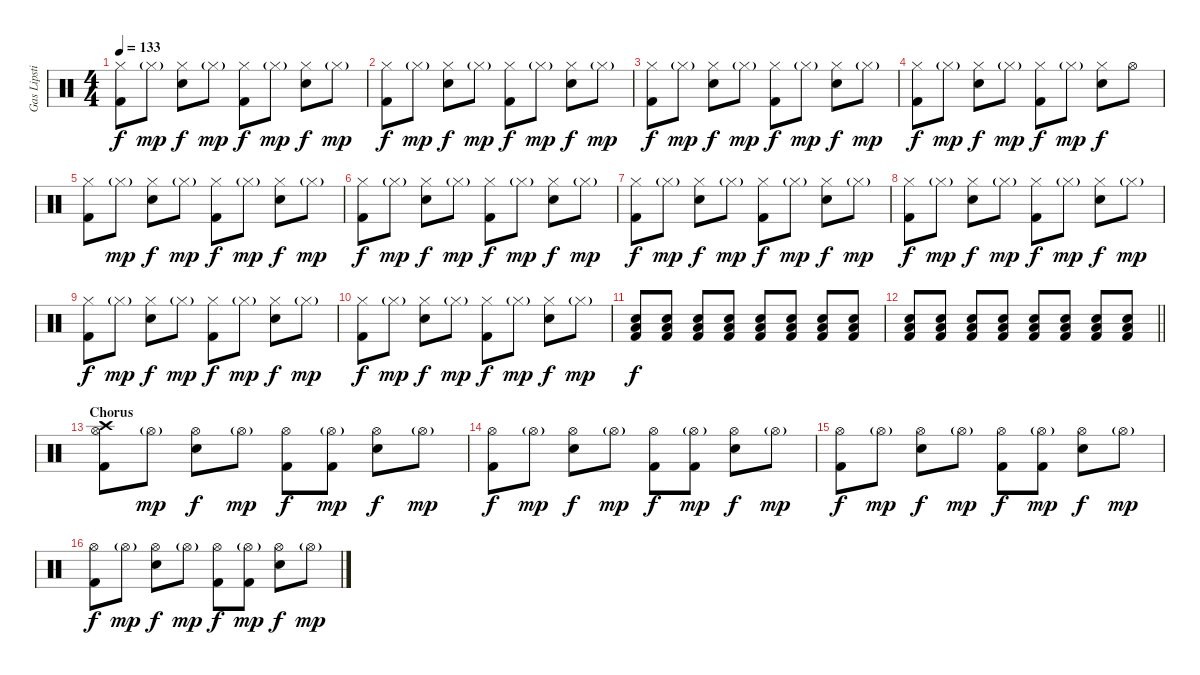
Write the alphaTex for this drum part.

\track ("Gas Lipstick (Drums)" "Gas Lipsti") {instrument percussion}
\staff {score}
\articulation defaults
\ts (4 4)
\tempo 133
\clef neutral
\ks c
("Hi-Hat (closed)" "Kick (hit) 2").8{dy f} "Hi-Hat (closed)"{g}.8{dy mp} ("Hi-Hat (closed)" "Snare (hit) 2").8{dy f} "Hi-Hat (closed)"{g}.8{dy mp} ("Hi-Hat (closed)" "Kick (hit) 2").8{dy f} "Hi-Hat (closed)"{g}.8{dy mp} ("Hi-Hat (closed)" "Snare (hit) 2").8{dy f} "Hi-Hat (closed)"{g}.8{dy mp} |
("Hi-Hat (closed)" "Kick (hit) 2").8{dy f} "Hi-Hat (closed)"{g}.8{dy mp} ("Hi-Hat (closed)" "Snare (hit) 2").8{dy f} "Hi-Hat (closed)"{g}.8{dy mp} ("Hi-Hat (closed)" "Kick (hit) 2").8{dy f} "Hi-Hat (closed)"{g}.8{dy mp} ("Hi-Hat (closed)" "Snare (hit) 2").8{dy f} "Hi-Hat (closed)"{g}.8{dy mp} |
("Hi-Hat (closed)" "Kick (hit) 2").8{dy f} "Hi-Hat (closed)"{g}.8{dy mp} ("Hi-Hat (closed)" "Snare (hit) 2").8{dy f} "Hi-Hat (closed)"{g}.8{dy mp} ("Hi-Hat (closed)" "Kick (hit) 2").8{dy f} "Hi-Hat (closed)"{g}.8{dy mp} ("Hi-Hat (closed)" "Snare (hit) 2").8{dy f} "Hi-Hat (closed)"{g}.8{dy mp} |
("Hi-Hat (closed)" "Kick (hit) 2").8{dy f} "Hi-Hat (closed)"{g}.8{dy mp} ("Hi-Hat (closed)" "Snare (hit) 2").8{dy f} "Hi-Hat (closed)"{g}.8{dy mp} ("Hi-Hat (closed)" "Kick (hit) 2").8{dy f} "Hi-Hat (closed)"{g}.8{dy mp} ("Hi-Hat (closed)" "Snare (hit) 2").8{dy f} "Hi-Hat (open)".8 |
("Hi-Hat (closed)" "Kick (hit) 2").8 "Hi-Hat (closed)"{g}.8{dy mp} ("Hi-Hat (closed)" "Snare (hit) 2").8{dy f} "Hi-Hat (closed)"{g}.8{dy mp} ("Hi-Hat (closed)" "Kick (hit) 2").8{dy f} "Hi-Hat (closed)"{g}.8{dy mp} ("Hi-Hat (closed)" "Snare (hit) 2").8{dy f} "Hi-Hat (closed)"{g}.8{dy mp} |
("Hi-Hat (closed)" "Kick (hit) 2").8{dy f} "Hi-Hat (closed)"{g}.8{dy mp} ("Hi-Hat (closed)" "Snare (hit) 2").8{dy f} "Hi-Hat (closed)"{g}.8{dy mp} ("Hi-Hat (closed)" "Kick (hit) 2").8{dy f} "Hi-Hat (closed)"{g}.8{dy mp} ("Hi-Hat (closed)" "Snare (hit) 2").8{dy f} "Hi-Hat (closed)"{g}.8{dy mp} |
("Hi-Hat (closed)" "Kick (hit) 2").8{dy f} "Hi-Hat (closed)"{g}.8{dy mp} ("Hi-Hat (closed)" "Snare (hit) 2").8{dy f} "Hi-Hat (closed)"{g}.8{dy mp} ("Hi-Hat (closed)" "Kick (hit) 2").8{dy f} "Hi-Hat (closed)"{g}.8{dy mp} ("Hi-Hat (closed)" "Snare (hit) 2").8{dy f} "Hi-Hat (closed)"{g}.8{dy mp} |
("Hi-Hat (closed)" "Kick (hit) 2").8{dy f} "Hi-Hat (closed)"{g}.8{dy mp} ("Hi-Hat (closed)" "Snare (hit) 2").8{dy f} "Hi-Hat (closed)"{g}.8{dy mp} ("Hi-Hat (closed)" "Kick (hit) 2").8{dy f} "Hi-Hat (closed)"{g}.8{dy mp} ("Hi-Hat (closed)" "Snare (hit) 2").8{dy f} "Hi-Hat (closed)"{g}.8{dy mp} |
("Hi-Hat (closed)" "Kick (hit) 2").8{dy f} "Hi-Hat (closed)"{g}.8{dy mp} ("Hi-Hat (closed)" "Snare (hit) 2").8{dy f} "Hi-Hat (closed)"{g}.8{dy mp} ("Hi-Hat (closed)" "Kick (hit) 2").8{dy f} "Hi-Hat (closed)"{g}.8{dy mp} ("Hi-Hat (closed)" "Snare (hit) 2").8{dy f} "Hi-Hat (closed)"{g}.8{dy mp} |
("Hi-Hat (closed)" "Kick (hit) 2").8{dy f} "Hi-Hat (closed)"{g}.8{dy mp} ("Hi-Hat (closed)" "Snare (hit) 2").8{dy f} "Hi-Hat (closed)"{g}.8{dy mp} ("Hi-Hat (closed)" "Kick (hit) 2").8{dy f} "Hi-Hat (closed)"{g}.8{dy mp} ("Hi-Hat (closed)" "Snare (hit) 2").8{dy f} "Hi-Hat (closed)"{g}.8{dy mp} |
("Low Floor Tom (hit)" "Snare (hit) 2" "Kick (hit) 2").8{dy f} ("Low Floor Tom (hit)" "Snare (hit) 2" "Kick (hit) 2").8 ("Low Floor Tom (hit)" "Snare (hit) 2" "Kick (hit) 2").8 ("Low Floor Tom (hit)" "Snare (hit) 2" "Kick (hit) 2").8 ("Low Floor Tom (hit)" "Snare (hit) 2" "Kick (hit) 2").8 ("Low Floor Tom (hit)" "Snare (hit) 2" "Kick (hit) 2").8 ("Low Floor Tom (hit)" "Snare (hit) 2" "Kick (hit) 2").8 ("Low Floor Tom (hit)" "Snare (hit) 2" "Kick (hit) 2").8 |
\barLineRight lightlight
("Low Floor Tom (hit)" "Snare (hit) 2" "Kick (hit) 2").8 ("Low Floor Tom (hit)" "Snare (hit) 2" "Kick (hit) 2").8 ("Low Floor Tom (hit)" "Snare (hit) 2" "Kick (hit) 2").8 ("Low Floor Tom (hit)" "Snare (hit) 2" "Kick (hit) 2").8 ("Low Floor Tom (hit)" "Snare (hit) 2" "Kick (hit) 2").8 ("Low Floor Tom (hit)" "Snare (hit) 2" "Kick (hit) 2").8 ("Low Floor Tom (hit)" "Snare (hit) 2" "Kick (hit) 2").8 ("Low Floor Tom (hit)" "Snare (hit) 2" "Kick (hit) 2").8 |
\section ("" "Chorus")
("Crash high (hit)" "Hi-Hat (open)" "Kick (hit) 2").8 "Hi-Hat (open)"{g}.8{dy mp} ("Hi-Hat (open)" "Snare (hit) 2").8{dy f} "Hi-Hat (open)"{g}.8{dy mp} ("Hi-Hat (open)" "Kick (hit) 2").8{dy f} ("Hi-Hat (open)"{g} "Kick (hit) 2").8{dy mp} ("Hi-Hat (open)" "Snare (hit) 2").8{dy f} "Hi-Hat (open)"{g}.8{dy mp} |
("Hi-Hat (open)" "Kick (hit) 2").8{dy f} "Hi-Hat (open)"{g}.8{dy mp} ("Hi-Hat (open)" "Snare (hit) 2").8{dy f} "Hi-Hat (open)"{g}.8{dy mp} ("Hi-Hat (open)" "Kick (hit) 2").8{dy f} ("Hi-Hat (open)"{g} "Kick (hit) 2").8{dy mp} ("Hi-Hat (open)" "Snare (hit) 2").8{dy f} "Hi-Hat (open)"{g}.8{dy mp} |
("Hi-Hat (open)" "Kick (hit) 2").8{dy f} "Hi-Hat (open)"{g}.8{dy mp} ("Hi-Hat (open)" "Snare (hit) 2").8{dy f} "Hi-Hat (open)"{g}.8{dy mp} ("Hi-Hat (open)" "Kick (hit) 2").8{dy f} ("Hi-Hat (open)"{g} "Kick (hit) 2").8{dy mp} ("Hi-Hat (open)" "Snare (hit) 2").8{dy f} "Hi-Hat (open)"{g}.8{dy mp} |
("Hi-Hat (open)" "Kick (hit) 2").8{dy f} "Hi-Hat (open)"{g}.8{dy mp} ("Hi-Hat (open)" "Snare (hit) 2").8{dy f} "Hi-Hat (open)"{g}.8{dy mp} ("Hi-Hat (open)" "Kick (hit) 2").8{dy f} ("Hi-Hat (open)"{g} "Kick (hit) 2").8{dy mp} ("Hi-Hat (open)" "Snare (hit) 2").8{dy f} "Hi-Hat (open)"{g}.8{dy mp}
